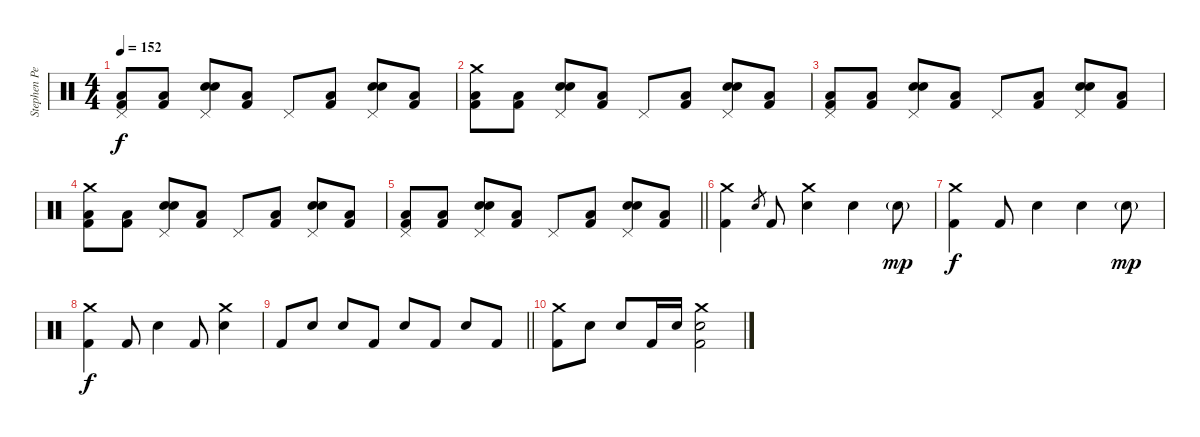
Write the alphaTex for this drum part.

\track ("Stephen Perkins (Drums)" "Stephen Pe") {instrument percussion}
\staff {score}
\articulation defaults
\ts (4 4)
\tempo 152
\clef neutral
\ks c
("Pedal Hi-Hat (hit)" "Low Floor Tom (hit)" "Kick (hit) 2").8{dy f} ("Low Floor Tom (hit)" "Kick (hit) 2").8 ("Pedal Hi-Hat (hit)" "Electric Snare (hit)" "Snare (hit) 2").8 ("Low Floor Tom (hit)" "Kick (hit) 2").8 "Pedal Hi-Hat (hit)".8 ("Low Floor Tom (hit)" "Kick (hit) 2").8 ("Pedal Hi-Hat (hit)" "Electric Snare (hit)" "Snare (hit) 2").8 ("Low Tom (hit)" "Kick (hit) 2").8 |
("Crash medium (hit)" "Low Floor Tom (hit)" "Kick (hit) 2").8 ("Low Floor Tom (hit)" "Kick (hit) 2").8 ("Pedal Hi-Hat (hit)" "Electric Snare (hit)" "Snare (hit) 2").8 ("Low Floor Tom (hit)" "Kick (hit) 2").8 "Pedal Hi-Hat (hit)".8 ("Low Floor Tom (hit)" "Kick (hit) 2").8 ("Pedal Hi-Hat (hit)" "Electric Snare (hit)" "Snare (hit) 2").8 ("Low Tom (hit)" "Kick (hit) 2").8 |
("Pedal Hi-Hat (hit)" "Low Floor Tom (hit)" "Kick (hit) 2").8 ("Low Floor Tom (hit)" "Kick (hit) 2").8 ("Pedal Hi-Hat (hit)" "Electric Snare (hit)" "Snare (hit) 2").8 ("Low Floor Tom (hit)" "Kick (hit) 2").8 "Pedal Hi-Hat (hit)".8 ("Low Floor Tom (hit)" "Kick (hit) 2").8 ("Pedal Hi-Hat (hit)" "Electric Snare (hit)" "Snare (hit) 2").8 ("Low Tom (hit)" "Kick (hit) 2").8 |
("Crash medium (hit)" "Low Floor Tom (hit)" "Kick (hit) 2").8 ("Low Floor Tom (hit)" "Kick (hit) 2").8 ("Pedal Hi-Hat (hit)" "Electric Snare (hit)" "Snare (hit) 2").8 ("Low Floor Tom (hit)" "Kick (hit) 2").8 "Pedal Hi-Hat (hit)".8 ("Low Floor Tom (hit)" "Kick (hit) 2").8 ("Pedal Hi-Hat (hit)" "Electric Snare (hit)" "Snare (hit) 2").8 ("Low Tom (hit)" "Kick (hit) 2").8 |
\barLineRight lightlight
("Pedal Hi-Hat (hit)" "Low Floor Tom (hit)" "Kick (hit) 2").8 ("Low Floor Tom (hit)" "Kick (hit) 2").8 ("Pedal Hi-Hat (hit)" "Electric Snare (hit)" "Snare (hit) 2").8 ("Low Floor Tom (hit)" "Kick (hit) 2").8 "Pedal Hi-Hat (hit)".8 ("Low Floor Tom (hit)" "Kick (hit) 2").8 ("Pedal Hi-Hat (hit)" "Electric Snare (hit)" "Snare (hit) 2").8 ("Low Tom (hit)" "Kick (hit) 2").8 |
("Crash medium (hit)" "Kick (hit) 2").4 "Electric Snare (hit)".8{gr} "Kick (hit) 2".8 ("Crash medium (hit)" "Electric Snare (hit)").4 "Electric Snare (hit)".4 "Electric Snare (hit)"{g}.8{dy mp} |
("Crash medium (hit)" "Kick (hit) 2").4{dy f} "Kick (hit) 2".8 "Electric Snare (hit)".4 "Electric Snare (hit)".4 "Electric Snare (hit)"{g}.8{dy mp} |
("Crash medium (hit)" "Kick (hit) 2").4{dy f} "Kick (hit) 2".8 "Electric Snare (hit)".4 "Kick (hit) 2".8 ("Crash medium (hit)" "Electric Snare (hit)").4 |
\barLineRight lightlight "Kick (hit) 2".8 "Electric Snare (hit)".8 "Electric Snare (hit)".8 "Kick (hit) 2".8 "Electric Snare (hit)".8 "Kick (hit) 2".8 "Electric Snare (hit)".8 "Kick (hit) 2".8
|
("Crash medium (hit)" "Kick (hit) 2").8 "Electric Snare (hit)".8 "Electric Snare (hit)".8 "Kick (hit) 2".16 "Electric Snare (hit)".16 ("Crash medium (hit)" "Electric Snare (hit)" "Kick (hit) 2").2
